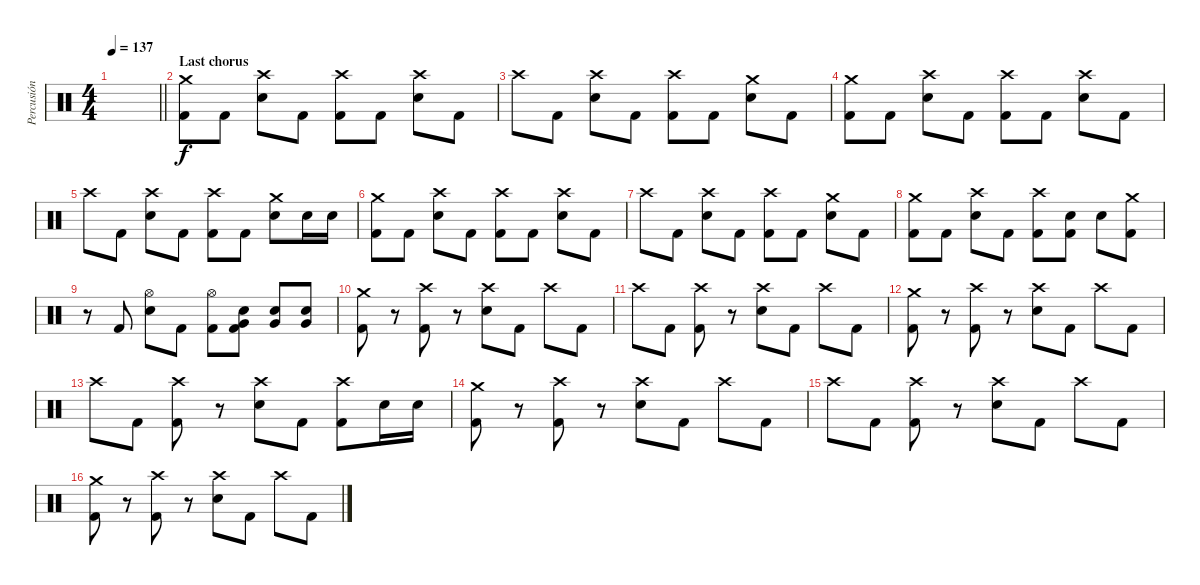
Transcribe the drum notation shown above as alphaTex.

\track ("Percusión" "Percusión") {instrument percussion}
\staff {score}
\articulation defaults
\ts (4 4)
\tempo 137
\clef neutral
\barLineRight lightlight
\ks c
|
\section ("" "Last chorus")
("Crash medium (hit)" "Kick (hit) 2").8{dy f} "Kick (hit) 2".8 ("Crash high (hit)" "Electric Snare (hit)").8 "Kick (hit) 2".8 ("Crash high (hit)" "Kick (hit) 2").8 "Kick (hit) 2".8 ("Crash high (hit)" "Electric Snare (hit)").8 "Kick (hit) 2".8 |
"Crash high (hit)".8 "Kick (hit) 2".8 ("Crash high (hit)" "Electric Snare (hit)").8 "Kick (hit) 2".8 ("Crash high (hit)" "Kick (hit) 2").8 "Kick (hit) 2".8 ("Crash medium (hit)" "Electric Snare (hit)").8 "Kick (hit) 2".8 |
("Crash medium (hit)" "Kick (hit) 2").8 "Kick (hit) 2".8 ("Crash high (hit)" "Electric Snare (hit)").8 "Kick (hit) 2".8 ("Crash high (hit)" "Kick (hit) 2").8 "Kick (hit) 2".8 ("Crash high (hit)" "Electric Snare (hit)").8 "Kick (hit) 2".8 |
"Crash high (hit)".8 "Kick (hit) 2".8 ("Crash high (hit)" "Electric Snare (hit)").8 "Kick (hit) 2".8 ("Crash high (hit)" "Kick (hit) 2").8 "Kick (hit) 2".8 ("Crash medium (hit)" "Electric Snare (hit)").8 "Electric Snare (hit)".16 "Electric Snare (hit)".16 |
("Crash medium (hit)" "Kick (hit) 2").8 "Kick (hit) 2".8 ("Crash high (hit)" "Electric Snare (hit)").8 "Kick (hit) 2".8 ("Crash high (hit)" "Kick (hit) 2").8 "Kick (hit) 2".8 ("Crash high (hit)" "Electric Snare (hit)").8 "Kick (hit) 2".8 |
"Crash high (hit)".8 "Kick (hit) 2".8 ("Crash high (hit)" "Electric Snare (hit)").8 "Kick (hit) 2".8 ("Crash high (hit)" "Kick (hit) 2").8 "Kick (hit) 2".8 ("Crash medium (hit)" "Electric Snare (hit)").8 "Kick (hit) 2".8 |
("Crash medium (hit)" "Kick (hit) 2").8 "Kick (hit) 2".8 ("Crash high (hit)" "Electric Snare (hit)").8 "Kick (hit) 2".8 ("Crash high (hit)" "Kick (hit) 2").8 ("Electric Snare (hit)" "Kick (hit) 2").8 "Electric Snare (hit)".8 ("Crash medium (hit)" "Kick (hit) 2").8 |
r.8 "Kick (hit) 2".8 ("Hi-Hat (open)" "Electric Snare (hit)").8 "Kick (hit) 2".8 ("Hi-Hat (open)" "Kick (hit) 2").8 ("Very Low Tom (hit)" "Electric Snare (hit)" "Kick (hit) 2").8 ("Very Low Tom (hit)" "Electric Snare (hit)").8 ("Very Low Tom (hit)" "Electric Snare (hit)").8 |
("Crash medium (hit)" "Kick (hit) 2").8 r.8 ("Crash high (hit)" "Kick (hit) 2").8 r.8 ("Crash high (hit)" "Electric Snare (hit)").8 "Kick (hit) 2".8 "Crash high (hit)".8 "Kick (hit) 2".8 |
"Crash high (hit)".8 "Kick (hit) 2".8 ("Crash high (hit)" "Kick (hit) 2").8 r.8 ("Crash high (hit)" "Electric Snare (hit)").8 "Kick (hit) 2".8 "Crash high (hit)".8 "Kick (hit) 2".8 |
("Crash medium (hit)" "Kick (hit) 2").8 r.8 ("Crash high (hit)" "Kick (hit) 2").8 r.8 ("Crash high (hit)" "Electric Snare (hit)").8 "Kick (hit) 2".8 "Crash high (hit)".8 "Kick (hit) 2".8 |
"Crash high (hit)".8 "Kick (hit) 2".8 ("Crash high (hit)" "Kick (hit) 2").8 r.8 ("Crash high (hit)" "Electric Snare (hit)").8 "Kick (hit) 2".8 ("Crash high (hit)" "Kick (hit) 2").8 "Electric Snare (hit)".16 "Electric Snare (hit)".16 |
("Crash medium (hit)" "Kick (hit) 2").8 r.8 ("Crash high (hit)" "Kick (hit) 2").8 r.8 ("Crash high (hit)" "Electric Snare (hit)").8 "Kick (hit) 2".8 "Crash high (hit)".8 "Kick (hit) 2".8 |
"Crash high (hit)".8 "Kick (hit) 2".8 ("Crash high (hit)" "Kick (hit) 2").8 r.8 ("Crash high (hit)" "Electric Snare (hit)").8 "Kick (hit) 2".8 "Crash high (hit)".8 "Kick (hit) 2".8 |
("Crash medium (hit)" "Kick (hit) 2").8 r.8 ("Crash high (hit)" "Kick (hit) 2").8 r.8 ("Crash high (hit)" "Electric Snare (hit)").8 "Kick (hit) 2".8 "Crash high (hit)".8 "Kick (hit) 2".8
